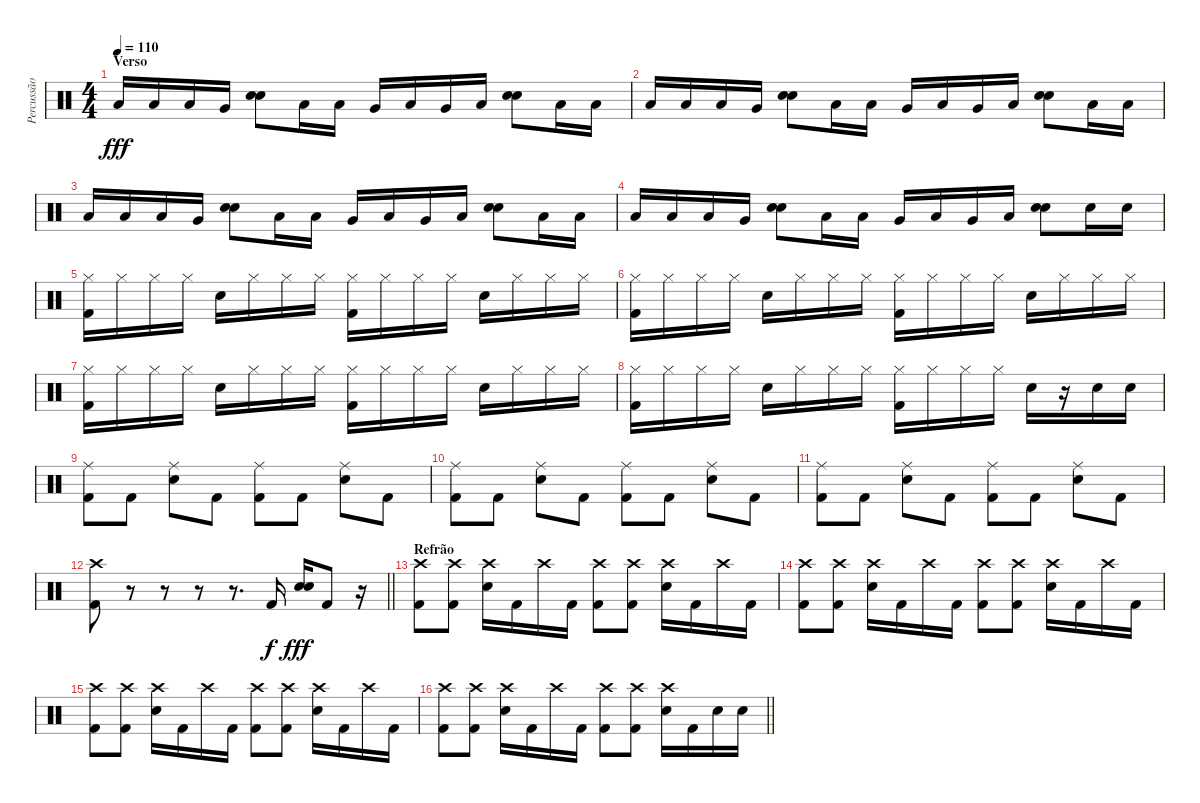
\track ("Percussão" "Percussão") {instrument percussion}
\staff {score}
\articulation defaults
\ts (4 4)
\section ("" "Verso")
\tempo 110
\clef neutral
\ks c "Low Floor Tom (hit)".16{dy fff} "Low Floor Tom (hit)".16 "Low Floor Tom (hit)".16 "Very Low Tom (hit)".16
("Electric Snare (hit)" "Electric Snare (hit)").8{bd 240} "Low Floor Tom (hit)".16 "Low Floor Tom (hit)".16 "Very Low Tom (hit)".16 "Low Floor Tom (hit)".16 "Very Low Tom (hit)".16 "Low Floor Tom (hit)".16 ("Electric Snare (hit)" "Electric Snare (hit)").8{bd 240} "Low Floor Tom (hit)".16 "Low Floor Tom (hit)".16 |
"Low Floor Tom (hit)".16 "Low Floor Tom (hit)".16 "Low Floor Tom (hit)".16 "Very Low Tom (hit)".16 ("Electric Snare (hit)" "Electric Snare (hit)").8{bd 240} "Low Floor Tom (hit)".16 "Low Floor Tom (hit)".16 "Very Low Tom (hit)".16 "Low Floor Tom (hit)".16 "Very Low Tom (hit)".16 "Low Floor Tom (hit)".16 ("Electric Snare (hit)" "Electric Snare (hit)").8{bd 240} "Low Floor Tom (hit)".16 "Low Floor Tom (hit)".16 |
"Low Floor Tom (hit)".16 "Low Floor Tom (hit)".16 "Low Floor Tom (hit)".16 "Very Low Tom (hit)".16 ("Electric Snare (hit)" "Electric Snare (hit)").8{bd 240} "Low Floor Tom (hit)".16 "Low Floor Tom (hit)".16 "Very Low Tom (hit)".16 "Low Floor Tom (hit)".16 "Very Low Tom (hit)".16 "Low Floor Tom (hit)".16 ("Electric Snare (hit)" "Electric Snare (hit)").8{bd 240} "Low Floor Tom (hit)".16 "Low Floor Tom (hit)".16 |
"Low Floor Tom (hit)".16 "Low Floor Tom (hit)".16 "Low Floor Tom (hit)".16 "Very Low Tom (hit)".16 ("Electric Snare (hit)" "Electric Snare (hit)").8{bd 240} "Low Floor Tom (hit)".16 "Low Floor Tom (hit)".16 "Very Low Tom (hit)".16 "Low Floor Tom (hit)".16 "Very Low Tom (hit)".16 "Low Floor Tom (hit)".16 ("Electric Snare (hit)" "Electric Snare (hit)").8{bd 240} "Electric Snare (hit)".16 "Electric Snare (hit)".16 |
("Hi-Hat (closed)" "Kick (hit) 2").16 "Hi-Hat (closed)".16 "Hi-Hat (closed)".16 "Hi-Hat (closed)".16 "Electric Snare (hit)".16 "Hi-Hat (closed)".16 "Hi-Hat (closed)".16 "Hi-Hat (closed)".16 ("Hi-Hat (closed)" "Kick (hit) 2").16 "Hi-Hat (closed)".16 "Hi-Hat (closed)".16 "Hi-Hat (closed)".16 "Electric Snare (hit)".16 "Hi-Hat (closed)".16 "Hi-Hat (closed)".16 "Hi-Hat (closed)".16 |
("Hi-Hat (closed)" "Kick (hit) 2").16 "Hi-Hat (closed)".16 "Hi-Hat (closed)".16 "Hi-Hat (closed)".16 "Electric Snare (hit)".16 "Hi-Hat (closed)".16 "Hi-Hat (closed)".16 "Hi-Hat (closed)".16 ("Hi-Hat (closed)" "Kick (hit) 2").16 "Hi-Hat (closed)".16 "Hi-Hat (closed)".16 "Hi-Hat (closed)".16 "Electric Snare (hit)".16 "Hi-Hat (closed)".16 "Hi-Hat (closed)".16 "Hi-Hat (closed)".16 |
("Hi-Hat (closed)" "Kick (hit) 2").16 "Hi-Hat (closed)".16 "Hi-Hat (closed)".16 "Hi-Hat (closed)".16 "Electric Snare (hit)".16 "Hi-Hat (closed)".16 "Hi-Hat (closed)".16 "Hi-Hat (closed)".16 ("Hi-Hat (closed)" "Kick (hit) 2").16 "Hi-Hat (closed)".16 "Hi-Hat (closed)".16 "Hi-Hat (closed)".16 "Electric Snare (hit)".16 "Hi-Hat (closed)".16 "Hi-Hat (closed)".16 "Hi-Hat (closed)".16 |
("Hi-Hat (closed)" "Kick (hit) 2").16 "Hi-Hat (closed)".16 "Hi-Hat (closed)".16 "Hi-Hat (closed)".16 "Electric Snare (hit)".16 "Hi-Hat (closed)".16 "Hi-Hat (closed)".16 "Hi-Hat (closed)".16 ("Hi-Hat (closed)" "Kick (hit) 2").16 "Hi-Hat (closed)".16 "Hi-Hat (closed)".16 "Hi-Hat (closed)".16 "Electric Snare (hit)".16 r.16 "Electric Snare (hit)".16 "Electric Snare (hit)".16 |
("Ride (middle)" "Kick (hit) 2").8 "Kick (hit) 2".8 ("Ride (middle)" "Electric Snare (hit)").8 "Kick (hit) 2".8 ("Ride (middle)" "Kick (hit) 2").8 "Kick (hit) 2".8 ("Ride (middle)" "Electric Snare (hit)").8 "Kick (hit) 2".8 |
("Ride (middle)" "Kick (hit) 2").8 "Kick (hit) 2".8 ("Ride (middle)" "Electric Snare (hit)").8 "Kick (hit) 2".8 ("Ride (middle)" "Kick (hit) 2").8 "Kick (hit) 2".8 ("Ride (middle)" "Electric Snare (hit)").8 "Kick (hit) 2".8 |
("Ride (middle)" "Kick (hit) 2").8 "Kick (hit) 2".8 ("Ride (middle)" "Electric Snare (hit)").8 "Kick (hit) 2".8 ("Ride (middle)" "Kick (hit) 2").8 "Kick (hit) 2".8 ("Ride (middle)" "Electric Snare (hit)").8 "Kick (hit) 2".8 |
\barLineRight lightlight
("Crash high (hit)" "Kick (hit) 2").8 r.8 r.8 r.8 r.8{d} "Kick (hit) 2".16{dy f} ("Electric Snare (hit)" "Electric Snare (hit)").16{bd 240 dy fff} "Kick (hit) 2".8 r.16 |
\section ("" "Refrão")
("Crash high (hit)" "Kick (hit) 2").8 ("Crash high (hit)" "Kick (hit) 2").8 ("Crash high (hit)" "Electric Snare (hit)").16 "Kick (hit) 2".16 "Crash high (hit)".16 "Kick (hit) 2".16 ("Crash high (hit)" "Kick (hit) 2").8 ("Crash high (hit)" "Kick (hit) 2").8 ("Crash high (hit)" "Electric Snare (hit)").16 "Kick (hit) 2".16 "Crash high (hit)".16 "Kick (hit) 2".16 |
("Crash high (hit)" "Kick (hit) 2").8 ("Crash high (hit)" "Kick (hit) 2").8 ("Crash high (hit)" "Electric Snare (hit)").16 "Kick (hit) 2".16 "Crash high (hit)".16 "Kick (hit) 2".16 ("Crash high (hit)" "Kick (hit) 2").8 ("Crash high (hit)" "Kick (hit) 2").8 ("Crash high (hit)" "Electric Snare (hit)").16 "Kick (hit) 2".16 "Crash high (hit)".16 "Kick (hit) 2".16 |
("Crash high (hit)" "Kick (hit) 2").8 ("Crash high (hit)" "Kick (hit) 2").8 ("Crash high (hit)" "Electric Snare (hit)").16 "Kick (hit) 2".16 "Crash high (hit)".16 "Kick (hit) 2".16 ("Crash high (hit)" "Kick (hit) 2").8 ("Crash high (hit)" "Kick (hit) 2").8 ("Crash high (hit)" "Electric Snare (hit)").16 "Kick (hit) 2".16 "Crash high (hit)".16 "Kick (hit) 2".16 |
\barLineRight lightlight
("Crash high (hit)" "Kick (hit) 2").8 ("Crash high (hit)" "Kick (hit) 2").8 ("Crash high (hit)" "Electric Snare (hit)").16 "Kick (hit) 2".16 "Crash high (hit)".16 "Kick (hit) 2".16 ("Crash high (hit)" "Kick (hit) 2").8 ("Crash high (hit)" "Kick (hit) 2").8 ("Crash high (hit)" "Electric Snare (hit)").16 "Kick (hit) 2".16 "Electric Snare (hit)".16 "Electric Snare (hit)".16
